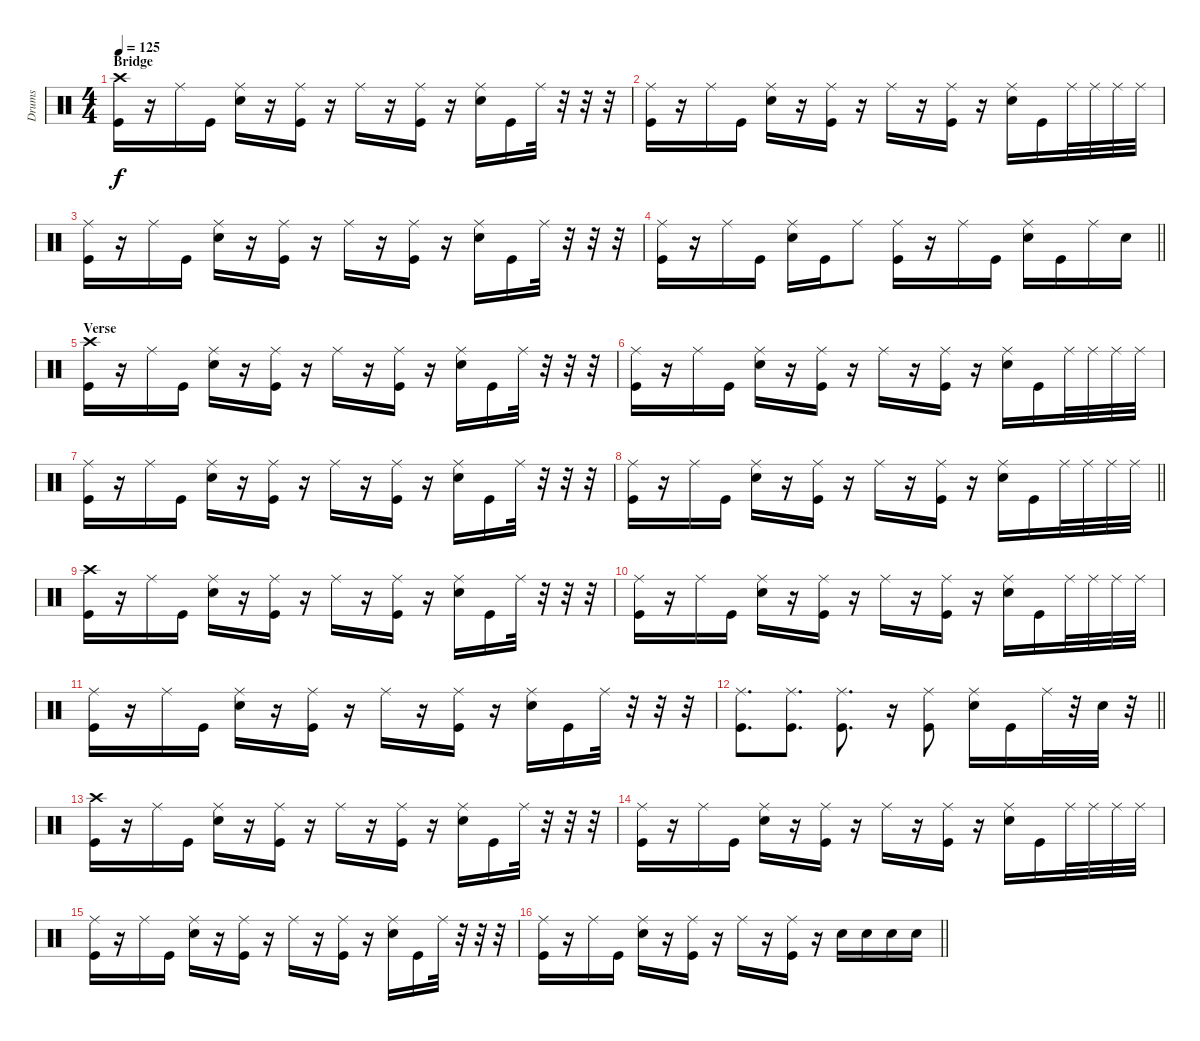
\track ("Drums" "Drums") {instrument percussion}
\staff {score}
\articulation defaults
\ts (4 4)
\section ("" "Bridge")
\tempo 125
\clef neutral
\ks c
("Kick (hit)" "Crash high (hit)").16{dy f volume 10} r.16 "Ride (middle)".16 "Kick (hit)".16 ("Snare (hit) 2" "Ride (middle)").16 r.16 ("Kick (hit)" "Ride (middle)").16 r.16 "Ride (middle)".16 r.16 ("Kick (hit)" "Ride (middle)").16 r.16 ("Snare (hit) 2" "Ride (middle)").16 "Kick (hit)".16 "Ride (middle)".32 r.32 r.32 r.32 |
("Kick (hit)" "Ride (middle)").16 r.16 "Ride (middle)".16 "Kick (hit)".16 ("Snare (hit) 2" "Ride (middle)").16 r.16 ("Kick (hit)" "Ride (middle)").16 r.16 "Ride (middle)".16 r.16 ("Kick (hit)" "Ride (middle)").16 r.16 ("Snare (hit) 2" "Ride (middle)").16 "Kick (hit)".16 "Ride (middle)".32 "Ride (middle)".32 "Ride (middle)".32 "Ride (middle)".32 |
("Kick (hit)" "Ride (middle)").16 r.16 "Ride (middle)".16 "Kick (hit)".16 ("Snare (hit) 2" "Ride (middle)").16 r.16 ("Kick (hit)" "Ride (middle)").16 r.16 "Ride (middle)".16 r.16 ("Kick (hit)" "Ride (middle)").16 r.16 ("Snare (hit) 2" "Ride (middle)").16 "Kick (hit)".16 "Ride (middle)".32 r.32 r.32 r.32 |
\barLineRight lightlight
("Kick (hit)" "Ride (middle)").16 r.16 "Ride (middle)".16 "Kick (hit)".16 ("Snare (hit) 2" "Ride (middle)").16 "Kick (hit)".16 "Ride (middle)".8 ("Kick (hit)" "Ride (middle)").16 r.16 "Ride (middle)".16 "Kick (hit)".16 ("Snare (hit) 2" "Ride (middle)").16 "Kick (hit)".16 "Ride (middle)".16 "Snare (hit) 2".16 |
\section ("" "Verse")
("Kick (hit)" "Crash high (hit)").16 r.16 "Ride (middle)".16 "Kick (hit)".16 ("Snare (hit) 2" "Ride (middle)").16 r.16 ("Kick (hit)" "Ride (middle)").16 r.16 "Ride (middle)".16 r.16 ("Kick (hit)" "Ride (middle)").16 r.16 ("Snare (hit) 2" "Ride (middle)").16 "Kick (hit)".16 "Ride (middle)".32 r.32 r.32 r.32 |
("Kick (hit)" "Ride (middle)").16 r.16 "Ride (middle)".16 "Kick (hit)".16 ("Snare (hit) 2" "Ride (middle)").16 r.16 ("Kick (hit)" "Ride (middle)").16 r.16 "Ride (middle)".16 r.16 ("Kick (hit)" "Ride (middle)").16 r.16 ("Snare (hit) 2" "Ride (middle)").16 "Kick (hit)".16 "Ride (middle)".32 "Ride (middle)".32 "Ride (middle)".32 "Ride (middle)".32 |
("Kick (hit)" "Ride (middle)").16 r.16 "Ride (middle)".16 "Kick (hit)".16 ("Snare (hit) 2" "Ride (middle)").16 r.16 ("Kick (hit)" "Ride (middle)").16 r.16 "Ride (middle)".16 r.16 ("Kick (hit)" "Ride (middle)").16 r.16 ("Snare (hit) 2" "Ride (middle)").16 "Kick (hit)".16 "Ride (middle)".32 r.32 r.32 r.32 |
\barLineRight lightlight
("Kick (hit)" "Ride (middle)").16 r.16 "Ride (middle)".16 "Kick (hit)".16 ("Snare (hit) 2" "Ride (middle)").16 r.16 ("Kick (hit)" "Ride (middle)").16 r.16 "Ride (middle)".16 r.16 ("Kick (hit)" "Ride (middle)").16 r.16 ("Snare (hit) 2" "Ride (middle)").16 "Kick (hit)".16 "Ride (middle)".32 "Ride (middle)".32 "Ride (middle)".32 "Ride (middle)".32 |
("Kick (hit)" "Crash high (hit)").16 r.16 "Ride (middle)".16 "Kick (hit)".16 ("Snare (hit) 2" "Ride (middle)").16 r.16 ("Kick (hit)" "Ride (middle)").16 r.16 "Ride (middle)".16 r.16 ("Kick (hit)" "Ride (middle)").16 r.16 ("Snare (hit) 2" "Ride (middle)").16 "Kick (hit)".16 "Ride (middle)".32 r.32 r.32 r.32 |
("Kick (hit)" "Ride (middle)").16 r.16 "Ride (middle)".16 "Kick (hit)".16 ("Snare (hit) 2" "Ride (middle)").16 r.16 ("Kick (hit)" "Ride (middle)").16 r.16 "Ride (middle)".16 r.16 ("Kick (hit)" "Ride (middle)").16 r.16 ("Snare (hit) 2" "Ride (middle)").16 "Kick (hit)".16 "Ride (middle)".32 "Ride (middle)".32 "Ride (middle)".32 "Ride (middle)".32 |
("Kick (hit)" "Ride (middle)").16 r.16 "Ride (middle)".16 "Kick (hit)".16 ("Snare (hit) 2" "Ride (middle)").16 r.16 ("Kick (hit)" "Ride (middle)").16 r.16 "Ride (middle)".16 r.16 ("Kick (hit)" "Ride (middle)").16 r.16 ("Snare (hit) 2" "Ride (middle)").16 "Kick (hit)".16 "Ride (middle)".32 r.32 r.32 r.32 |
\barLineRight lightlight
("Kick (hit)" "Ride (middle)").8{d} ("Kick (hit)" "Ride (middle)").8{d} ("Kick (hit)" "Ride (middle)").8{d} r.16 ("Kick (hit)" "Ride (middle)").8 ("Snare (hit) 2" "Ride (middle)").16 "Kick (hit)".16 "Ride (middle)".32 r.32 "Snare (hit) 2".32 r.32 |
("Kick (hit)" "Crash high (hit)").16 r.16 "Ride (middle)".16 "Kick (hit)".16 ("Snare (hit) 2" "Ride (middle)").16 r.16 ("Kick (hit)" "Ride (middle)").16 r.16 "Ride (middle)".16 r.16 ("Kick (hit)" "Ride (middle)").16 r.16 ("Snare (hit) 2" "Ride (middle)").16 "Kick (hit)".16 "Ride (middle)".32 r.32 r.32 r.32 |
("Kick (hit)" "Ride (middle)").16 r.16 "Ride (middle)".16 "Kick (hit)".16 ("Snare (hit) 2" "Ride (middle)").16 r.16 ("Kick (hit)" "Ride (middle)").16 r.16 "Ride (middle)".16 r.16 ("Kick (hit)" "Ride (middle)").16 r.16 ("Snare (hit) 2" "Ride (middle)").16 "Kick (hit)".16 "Ride (middle)".32 "Ride (middle)".32 "Ride (middle)".32 "Ride (middle)".32 |
("Kick (hit)" "Ride (middle)").16 r.16 "Ride (middle)".16 "Kick (hit)".16 ("Snare (hit) 2" "Ride (middle)").16 r.16 ("Kick (hit)" "Ride (middle)").16 r.16 "Ride (middle)".16 r.16 ("Kick (hit)" "Ride (middle)").16 r.16 ("Snare (hit) 2" "Ride (middle)").16 "Kick (hit)".16 "Ride (middle)".32 r.32 r.32 r.32 |
\barLineRight lightlight
("Kick (hit)" "Ride (middle)").16 r.16 "Ride (middle)".16 "Kick (hit)".16 ("Snare (hit) 2" "Ride (middle)").16 r.16 ("Kick (hit)" "Ride (middle)").16 r.16 "Ride (middle)".16 r.16 ("Kick (hit)" "Ride (middle)").16 r.16 "Snare (hit) 2".16 "Snare (hit) 2".16 "Snare (hit) 2".16 "Snare (hit) 2".16
